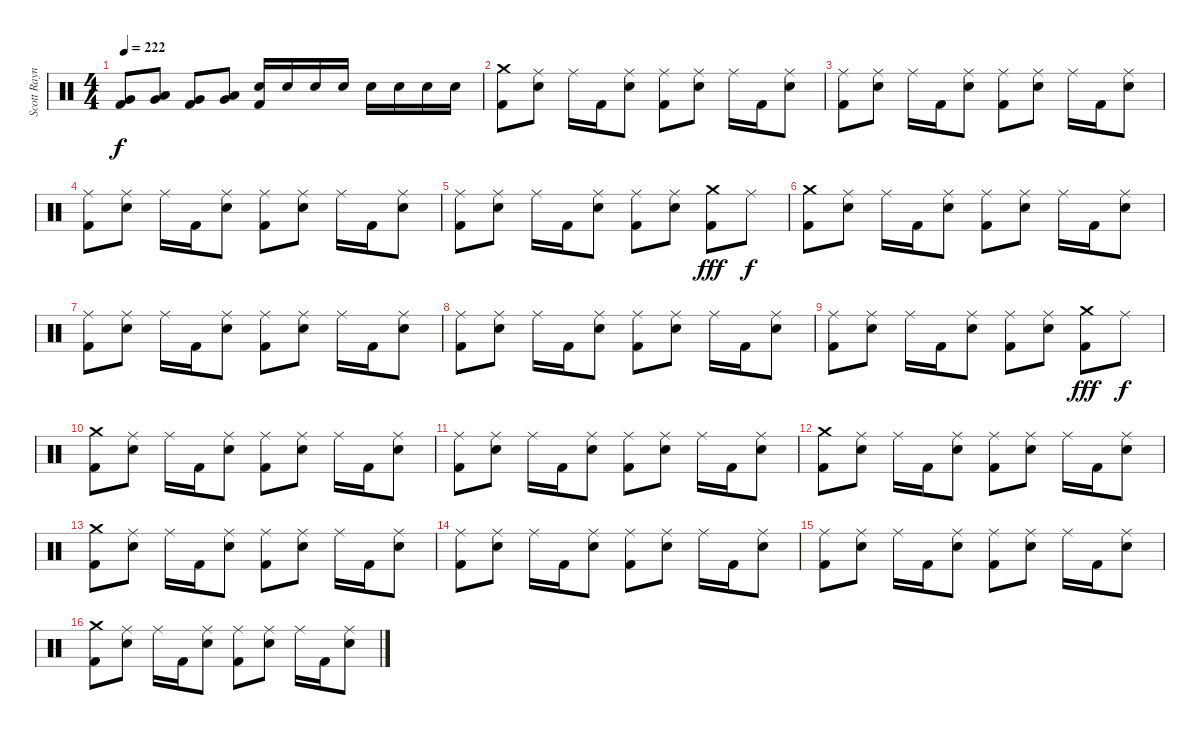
\track ("Scott Raynor - Bateria/Drums" "Scott Rayn") {instrument percussion}
\staff {score}
\articulation defaults
\ts (4 4)
\tempo 222
\clef neutral
\ks c
("Very Low Tom (hit)" "Kick (hit) 2").8{dy f} ("Low Tom (hit)" "Very Low Tom (hit)").8 ("Very Low Tom (hit)" "Kick (hit) 2").8 ("Low Tom (hit)" "Very Low Tom (hit)").8 ("Electric Snare (hit)" "Kick (hit) 2").16 "Electric Snare (hit)".16 "Electric Snare (hit)".16 "Electric Snare (hit)".16 "Electric Snare (hit)".16 "Electric Snare (hit)".16 "Electric Snare (hit)".16 "Electric Snare (hit)".16 |
("Crash medium (hit)" "Kick (hit) 2").8 ("Ride (middle)" "Electric Snare (hit)").8 "Ride (middle)".16 "Kick (hit) 2".16 ("Ride (middle)" "Electric Snare (hit)").8 ("Ride (middle)" "Kick (hit) 2").8 ("Ride (middle)" "Electric Snare (hit)").8 "Ride (middle)".16 "Kick (hit) 2".16 ("Ride (middle)" "Electric Snare (hit)").8 |
("Ride (middle)" "Kick (hit) 2").8 ("Ride (middle)" "Electric Snare (hit)").8 "Ride (middle)".16 "Kick (hit) 2".16 ("Ride (middle)" "Electric Snare (hit)").8 ("Ride (middle)" "Kick (hit) 2").8 ("Ride (middle)" "Electric Snare (hit)").8 "Ride (middle)".16 "Kick (hit) 2".16 ("Ride (middle)" "Electric Snare (hit)").8 |
("Ride (middle)" "Kick (hit) 2").8 ("Ride (middle)" "Electric Snare (hit)").8 "Ride (middle)".16 "Kick (hit) 2".16 ("Ride (middle)" "Electric Snare (hit)").8 ("Ride (middle)" "Kick (hit) 2").8 ("Ride (middle)" "Electric Snare (hit)").8 "Ride (middle)".16 "Kick (hit) 2".16 ("Ride (middle)" "Electric Snare (hit)").8 |
("Ride (middle)" "Kick (hit) 2").8 ("Ride (middle)" "Electric Snare (hit)").8 "Ride (middle)".16 "Kick (hit) 2".16 ("Ride (middle)" "Electric Snare (hit)").8 ("Ride (middle)" "Kick (hit) 2").8 ("Ride (middle)" "Electric Snare (hit)").8 ("Crash medium (hit)" "Kick (hit) 2").8{dy fff} "Ride (middle)".8{dy f} |
("Crash medium (hit)" "Kick (hit) 2").8 ("Ride (middle)" "Electric Snare (hit)").8 "Ride (middle)".16 "Kick (hit) 2".16 ("Ride (middle)" "Electric Snare (hit)").8 ("Ride (middle)" "Kick (hit) 2").8 ("Ride (middle)" "Electric Snare (hit)").8 "Ride (middle)".16 "Kick (hit) 2".16 ("Ride (middle)" "Electric Snare (hit)").8 |
("Ride (middle)" "Kick (hit) 2").8 ("Ride (middle)" "Electric Snare (hit)").8 "Ride (middle)".16 "Kick (hit) 2".16 ("Ride (middle)" "Electric Snare (hit)").8 ("Ride (middle)" "Kick (hit) 2").8 ("Ride (middle)" "Electric Snare (hit)").8 "Ride (middle)".16 "Kick (hit) 2".16 ("Ride (middle)" "Electric Snare (hit)").8 |
("Ride (middle)" "Kick (hit) 2").8 ("Ride (middle)" "Electric Snare (hit)").8 "Ride (middle)".16 "Kick (hit) 2".16 ("Ride (middle)" "Electric Snare (hit)").8 ("Ride (middle)" "Kick (hit) 2").8 ("Ride (middle)" "Electric Snare (hit)").8 "Ride (middle)".16 "Kick (hit) 2".16 ("Ride (middle)" "Electric Snare (hit)").8 |
("Ride (middle)" "Kick (hit) 2").8 ("Ride (middle)" "Electric Snare (hit)").8 "Ride (middle)".16 "Kick (hit) 2".16 ("Ride (middle)" "Electric Snare (hit)").8 ("Ride (middle)" "Kick (hit) 2").8 ("Ride (middle)" "Electric Snare (hit)").8 ("Crash medium (hit)" "Kick (hit) 2").8{dy fff} "Ride (middle)".8{dy f} |
("Crash medium (hit)" "Kick (hit) 2").8 ("Ride (middle)" "Electric Snare (hit)").8 "Ride (middle)".16 "Kick (hit) 2".16 ("Ride (middle)" "Electric Snare (hit)").8 ("Ride (middle)" "Kick (hit) 2").8 ("Ride (middle)" "Electric Snare (hit)").8 "Ride (middle)".16 "Kick (hit) 2".16 ("Ride (middle)" "Electric Snare (hit)").8 |
("Ride (middle)" "Kick (hit) 2").8 ("Ride (middle)" "Electric Snare (hit)").8 "Ride (middle)".16 "Kick (hit) 2".16 ("Ride (middle)" "Electric Snare (hit)").8 ("Ride (middle)" "Kick (hit) 2").8 ("Ride (middle)" "Electric Snare (hit)").8 "Ride (middle)".16 "Kick (hit) 2".16 ("Ride (middle)" "Electric Snare (hit)").8 |
("Crash medium (hit)" "Kick (hit) 2").8 ("Ride (middle)" "Electric Snare (hit)").8 "Ride (middle)".16 "Kick (hit) 2".16 ("Ride (middle)" "Electric Snare (hit)").8 ("Ride (middle)" "Kick (hit) 2").8 ("Ride (middle)" "Electric Snare (hit)").8 "Ride (middle)".16 "Kick (hit) 2".16 ("Ride (middle)" "Electric Snare (hit)").8 |
("Crash medium (hit)" "Kick (hit) 2").8 ("Ride (middle)" "Electric Snare (hit)").8 "Ride (middle)".16 "Kick (hit) 2".16 ("Ride (middle)" "Electric Snare (hit)").8 ("Ride (middle)" "Kick (hit) 2").8 ("Ride (middle)" "Electric Snare (hit)").8 "Ride (middle)".16 "Kick (hit) 2".16 ("Ride (middle)" "Electric Snare (hit)").8 |
("Ride (middle)" "Kick (hit) 2").8 ("Ride (middle)" "Electric Snare (hit)").8 "Ride (middle)".16 "Kick (hit) 2".16 ("Ride (middle)" "Electric Snare (hit)").8 ("Ride (middle)" "Kick (hit) 2").8 ("Ride (middle)" "Electric Snare (hit)").8 "Ride (middle)".16 "Kick (hit) 2".16 ("Ride (middle)" "Electric Snare (hit)").8 |
("Ride (middle)" "Kick (hit) 2").8 ("Ride (middle)" "Electric Snare (hit)").8 "Ride (middle)".16 "Kick (hit) 2".16 ("Ride (middle)" "Electric Snare (hit)").8 ("Ride (middle)" "Kick (hit) 2").8 ("Ride (middle)" "Electric Snare (hit)").8 "Ride (middle)".16 "Kick (hit) 2".16 ("Ride (middle)" "Electric Snare (hit)").8 |
("Crash medium (hit)" "Kick (hit) 2").8 ("Ride (middle)" "Electric Snare (hit)").8 "Ride (middle)".16 "Kick (hit) 2".16 ("Ride (middle)" "Electric Snare (hit)").8 ("Ride (middle)" "Kick (hit) 2").8 ("Ride (middle)" "Electric Snare (hit)").8 "Ride (middle)".16 "Kick (hit) 2".16 ("Ride (middle)" "Electric Snare (hit)").8
